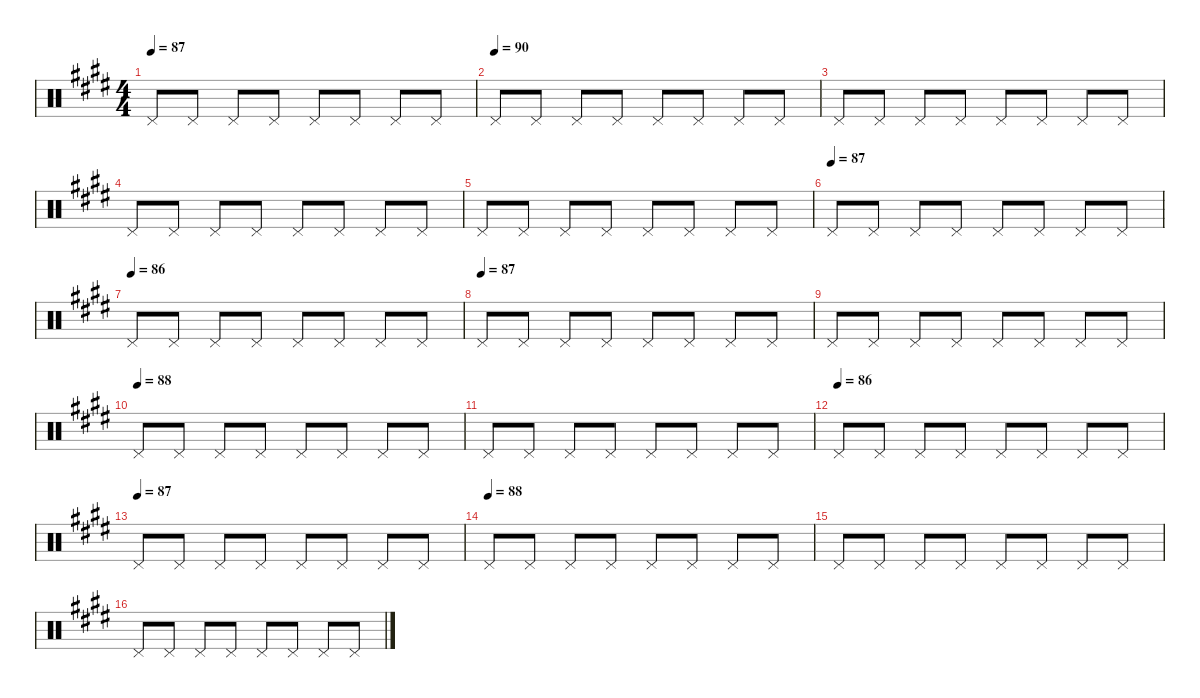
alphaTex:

\defaultSystemsLayout 4
\hideDynamics
\bracketExtendMode nobrackets
\singleTrackTrackNamePolicy hidden
\multiTrackTrackNamePolicy hidden
\firstSystemTrackNameMode fullname
\firstSystemTrackNameOrientation horizontal
\otherSystemsTrackNameOrientation horizontal
\track ("Drums" "drm.") {defaultSystemsLayout 4 instrument percussion}
\staff {score}
\articulation defaults
\ts (4 4)
\tempo 87
\clef neutral
\ks e "Pedal Hi-Hat (hit)"{acc forcenatural}.8{dy mp beam Up} "Pedal Hi-Hat (hit)"{acc forcenatural}.8{beam Up} "Pedal Hi-Hat (hit)"{acc forcenatural}.8{beam Up} "Pedal Hi-Hat (hit)"{acc forcenatural}.8{beam Up} "Pedal Hi-Hat (hit)"{acc forcenatural}.8{beam Up} "Pedal Hi-Hat (hit)"{acc forcenatural}.8{beam Up} "Pedal Hi-Hat (hit)"{acc forcenatural}.8{beam Up} "Pedal Hi-Hat (hit)"{acc forcenatural}.8{beam Up}
|
\tempo (90)
"Pedal Hi-Hat (hit)"{acc forcenatural}.8{beam Up} "Pedal Hi-Hat (hit)"{acc forcenatural}.8{beam Up} "Pedal Hi-Hat (hit)"{acc forcenatural}.8{beam Up} "Pedal Hi-Hat (hit)"{acc forcenatural}.8{beam Up} "Pedal Hi-Hat (hit)"{acc forcenatural}.8{beam Up} "Pedal Hi-Hat (hit)"{acc forcenatural}.8{beam Up} "Pedal Hi-Hat (hit)"{acc forcenatural}.8{beam Up} "Pedal Hi-Hat (hit)"{acc forcenatural}.8{beam Up} |
"Pedal Hi-Hat (hit)"{acc forcenatural}.8{dy p beam Up} "Pedal Hi-Hat (hit)"{acc forcenatural}.8{beam Up} "Pedal Hi-Hat (hit)"{acc forcenatural}.8{beam Up} "Pedal Hi-Hat (hit)"{acc forcenatural}.8{beam Up} "Pedal Hi-Hat (hit)"{acc forcenatural}.8{beam Up} "Pedal Hi-Hat (hit)"{acc forcenatural}.8{beam Up} "Pedal Hi-Hat (hit)"{acc forcenatural}.8{beam Up} "Pedal Hi-Hat (hit)"{acc forcenatural}.8{beam Up} |
"Pedal Hi-Hat (hit)"{acc forcenatural}.8{dy pp beam Up} "Pedal Hi-Hat (hit)"{acc forcenatural}.8{beam Up} "Pedal Hi-Hat (hit)"{acc forcenatural}.8{beam Up} "Pedal Hi-Hat (hit)"{acc forcenatural}.8{beam Up} "Pedal Hi-Hat (hit)"{acc forcenatural}.8{beam Up} "Pedal Hi-Hat (hit)"{acc forcenatural}.8{beam Up} "Pedal Hi-Hat (hit)"{acc forcenatural}.8{beam Up} "Pedal Hi-Hat (hit)"{acc forcenatural}.8{beam Up} |
"Pedal Hi-Hat (hit)"{acc forcenatural}.8{dy p beam Up} "Pedal Hi-Hat (hit)"{acc forcenatural}.8{beam Up} "Pedal Hi-Hat (hit)"{acc forcenatural}.8{beam Up} "Pedal Hi-Hat (hit)"{acc forcenatural}.8{beam Up} "Pedal Hi-Hat (hit)"{acc forcenatural}.8{beam Up} "Pedal Hi-Hat (hit)"{acc forcenatural}.8{beam Up} "Pedal Hi-Hat (hit)"{acc forcenatural}.8{dy mp beam Up} "Pedal Hi-Hat (hit)"{acc forcenatural}.8{beam Up} |
\tempo (87)
"Pedal Hi-Hat (hit)"{acc forcenatural}.8{beam Up} "Pedal Hi-Hat (hit)"{acc forcenatural}.8{beam Up} "Pedal Hi-Hat (hit)"{acc forcenatural}.8{beam Up} "Pedal Hi-Hat (hit)"{acc forcenatural}.8{beam Up} "Pedal Hi-Hat (hit)"{acc forcenatural}.8{beam Up} "Pedal Hi-Hat (hit)"{acc forcenatural}.8{beam Up} "Pedal Hi-Hat (hit)"{acc forcenatural}.8{beam Up} "Pedal Hi-Hat (hit)"{acc forcenatural}.8{beam Up} |
\tempo (86)
"Pedal Hi-Hat (hit)"{acc forcenatural}.8{beam Up} "Pedal Hi-Hat (hit)"{acc forcenatural}.8{beam Up} "Pedal Hi-Hat (hit)"{acc forcenatural}.8{beam Up} "Pedal Hi-Hat (hit)"{acc forcenatural}.8{beam Up} "Pedal Hi-Hat (hit)"{acc forcenatural}.8{beam Up} "Pedal Hi-Hat (hit)"{acc forcenatural}.8{beam Up} "Pedal Hi-Hat (hit)"{acc forcenatural}.8{beam Up} "Pedal Hi-Hat (hit)"{acc forcenatural}.8{beam Up} |
\tempo (87)
"Pedal Hi-Hat (hit)"{acc forcenatural}.8{beam Up} "Pedal Hi-Hat (hit)"{acc forcenatural}.8{beam Up} "Pedal Hi-Hat (hit)"{acc forcenatural}.8{beam Up} "Pedal Hi-Hat (hit)"{acc forcenatural}.8{beam Up} "Pedal Hi-Hat (hit)"{acc forcenatural}.8{beam Up} "Pedal Hi-Hat (hit)"{acc forcenatural}.8{beam Up} "Pedal Hi-Hat (hit)"{acc forcenatural}.8{beam Up} "Pedal Hi-Hat (hit)"{acc forcenatural}.8{beam Up} |
"Pedal Hi-Hat (hit)"{acc forcenatural}.8{beam Up} "Pedal Hi-Hat (hit)"{acc forcenatural}.8{beam Up} "Pedal Hi-Hat (hit)"{acc forcenatural}.8{beam Up} "Pedal Hi-Hat (hit)"{acc forcenatural}.8{beam Up} "Pedal Hi-Hat (hit)"{acc forcenatural}.8{beam Up} "Pedal Hi-Hat (hit)"{acc forcenatural}.8{beam Up} "Pedal Hi-Hat (hit)"{acc forcenatural}.8{beam Up} "Pedal Hi-Hat (hit)"{acc forcenatural}.8{beam Up} |
\tempo (88)
"Pedal Hi-Hat (hit)"{acc forcenatural}.8{beam Up} "Pedal Hi-Hat (hit)"{acc forcenatural}.8{beam Up} "Pedal Hi-Hat (hit)"{acc forcenatural}.8{beam Up} "Pedal Hi-Hat (hit)"{acc forcenatural}.8{beam Up} "Pedal Hi-Hat (hit)"{acc forcenatural}.8{beam Up} "Pedal Hi-Hat (hit)"{acc forcenatural}.8{beam Up} "Pedal Hi-Hat (hit)"{acc forcenatural}.8{beam Up} "Pedal Hi-Hat (hit)"{acc forcenatural}.8{beam Up} |
"Pedal Hi-Hat (hit)"{acc forcenatural}.8{beam Up} "Pedal Hi-Hat (hit)"{acc forcenatural}.8{beam Up} "Pedal Hi-Hat (hit)"{acc forcenatural}.8{beam Up} "Pedal Hi-Hat (hit)"{acc forcenatural}.8{beam Up} "Pedal Hi-Hat (hit)"{acc forcenatural}.8{beam Up} "Pedal Hi-Hat (hit)"{acc forcenatural}.8{beam Up} "Pedal Hi-Hat (hit)"{acc forcenatural}.8{beam Up} "Pedal Hi-Hat (hit)"{acc forcenatural}.8{beam Up} |
\tempo (86)
"Pedal Hi-Hat (hit)"{acc forcenatural}.8{beam Up} "Pedal Hi-Hat (hit)"{acc forcenatural}.8{beam Up} "Pedal Hi-Hat (hit)"{acc forcenatural}.8{beam Up} "Pedal Hi-Hat (hit)"{acc forcenatural}.8{beam Up} "Pedal Hi-Hat (hit)"{acc forcenatural}.8{beam Up} "Pedal Hi-Hat (hit)"{acc forcenatural}.8{beam Up} "Pedal Hi-Hat (hit)"{acc forcenatural}.8{beam Up} "Pedal Hi-Hat (hit)"{acc forcenatural}.8{beam Up} |
\tempo (87)
"Pedal Hi-Hat (hit)"{acc forcenatural}.8{beam Up} "Pedal Hi-Hat (hit)"{acc forcenatural}.8{beam Up} "Pedal Hi-Hat (hit)"{acc forcenatural}.8{beam Up} "Pedal Hi-Hat (hit)"{acc forcenatural}.8{beam Up} "Pedal Hi-Hat (hit)"{acc forcenatural}.8{beam Up} "Pedal Hi-Hat (hit)"{acc forcenatural}.8{beam Up} "Pedal Hi-Hat (hit)"{acc forcenatural}.8{beam Up} "Pedal Hi-Hat (hit)"{acc forcenatural}.8{beam Up} |
\tempo (88)
"Pedal Hi-Hat (hit)"{acc forcenatural}.8{beam Up} "Pedal Hi-Hat (hit)"{acc forcenatural}.8{beam Up} "Pedal Hi-Hat (hit)"{acc forcenatural}.8{beam Up} "Pedal Hi-Hat (hit)"{acc forcenatural}.8{beam Up} "Pedal Hi-Hat (hit)"{acc forcenatural}.8{beam Up} "Pedal Hi-Hat (hit)"{acc forcenatural}.8{beam Up} "Pedal Hi-Hat (hit)"{acc forcenatural}.8{beam Up} "Pedal Hi-Hat (hit)"{acc forcenatural}.8{beam Up} |
"Pedal Hi-Hat (hit)"{acc forcenatural}.8{beam Up} "Pedal Hi-Hat (hit)"{acc forcenatural}.8{beam Up} "Pedal Hi-Hat (hit)"{acc forcenatural}.8{beam Up} "Pedal Hi-Hat (hit)"{acc forcenatural}.8{beam Up} "Pedal Hi-Hat (hit)"{acc forcenatural}.8{beam Up} "Pedal Hi-Hat (hit)"{acc forcenatural}.8{beam Up} "Pedal Hi-Hat (hit)"{acc forcenatural}.8{beam Up} "Pedal Hi-Hat (hit)"{acc forcenatural}.8{beam Up} |
"Pedal Hi-Hat (hit)"{acc forcenatural}.8{beam Up} "Pedal Hi-Hat (hit)"{acc forcenatural}.8{beam Up} "Pedal Hi-Hat (hit)"{acc forcenatural}.8{beam Up} "Pedal Hi-Hat (hit)"{acc forcenatural}.8{beam Up} "Pedal Hi-Hat (hit)"{acc forcenatural}.8{beam Up} "Pedal Hi-Hat (hit)"{acc forcenatural}.8{beam Up} "Pedal Hi-Hat (hit)"{acc forcenatural}.8{beam Up} "Pedal Hi-Hat (hit)"{acc forcenatural}.8{beam Up}
